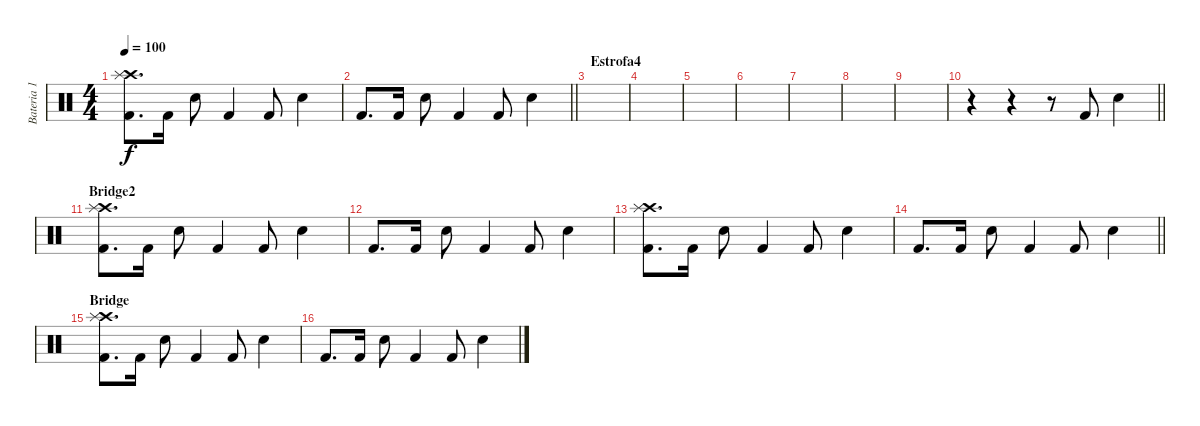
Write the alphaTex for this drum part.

\track ("Bateria 1" "Bateria 1") {instrument percussion}
\staff {score}
\articulation defaults
\ts (4 4)
\tempo 100
\clef neutral
\ks c
("Crash high (hit)" "Kick (hit) 2" "Splash (hit)").8{d dy f} "Kick (hit) 2".16 "Electric Snare (hit)".8 "Kick (hit) 2".4 "Kick (hit) 2".8 "Electric Snare (hit)".4 |
\barLineRight lightlight "Kick (hit) 2".8{d} "Kick (hit) 2".16 "Electric Snare (hit)".8 "Kick (hit) 2".4 "Kick (hit) 2".8 "Electric Snare (hit)".4
|
\section ("" "Estrofa4")
|
|
|
|
|
|
|
\barLineRight lightlight
r.4 r.4 r.8 "Kick (hit) 2".8 "Electric Snare (hit)".4 |
\section ("" "Bridge2")
("Crash high (hit)" "Kick (hit) 2" "Splash (hit)").8{d} "Kick (hit) 2".16 "Electric Snare (hit)".8 "Kick (hit) 2".4 "Kick (hit) 2".8 "Electric Snare (hit)".4 |
"Kick (hit) 2".8{d} "Kick (hit) 2".16 "Electric Snare (hit)".8 "Kick (hit) 2".4 "Kick (hit) 2".8 "Electric Snare (hit)".4 |
("Crash high (hit)" "Kick (hit) 2" "Splash (hit)").8{d} "Kick (hit) 2".16 "Electric Snare (hit)".8 "Kick (hit) 2".4 "Kick (hit) 2".8 "Electric Snare (hit)".4 |
\barLineRight lightlight "Kick (hit) 2".8{d} "Kick (hit) 2".16 "Electric Snare (hit)".8 "Kick (hit) 2".4 "Kick (hit) 2".8 "Electric Snare (hit)".4
|
\section ("" "Bridge")
("Crash high (hit)" "Kick (hit) 2" "Splash (hit)").8{d} "Kick (hit) 2".16 "Electric Snare (hit)".8 "Kick (hit) 2".4 "Kick (hit) 2".8 "Electric Snare (hit)".4 |
"Kick (hit) 2".8{d} "Kick (hit) 2".16 "Electric Snare (hit)".8 "Kick (hit) 2".4 "Kick (hit) 2".8 "Electric Snare (hit)".4
